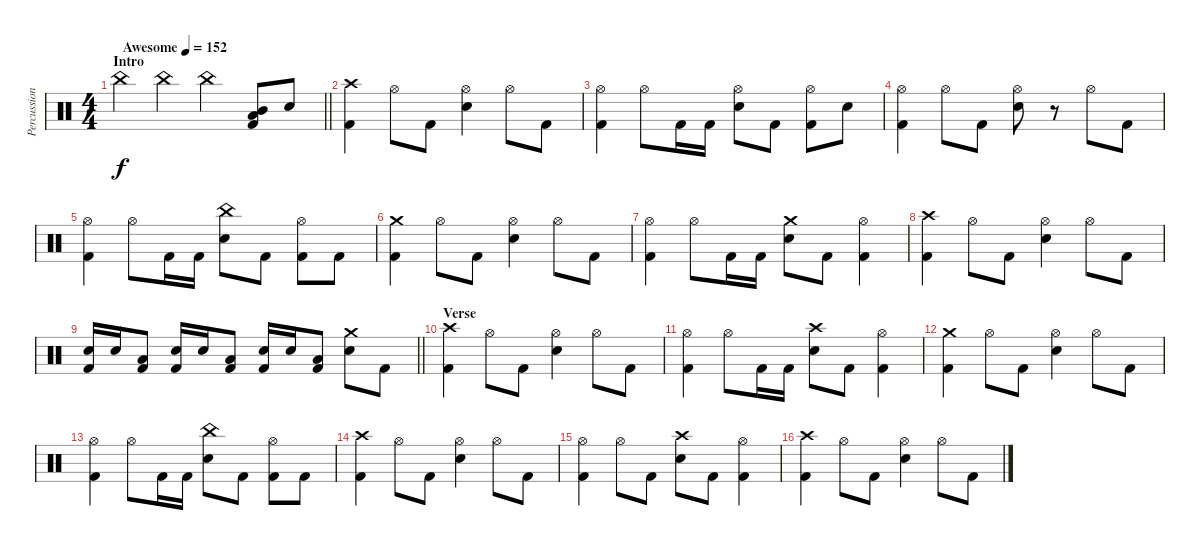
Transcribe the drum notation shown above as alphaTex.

\track ("Percussion" "Percussion") {instrument percussion}
\staff {score}
\articulation defaults
\ts (4 4)
\section ("" "Intro")
\tempo (152 "Awesome")
\clef neutral
\barLineRight lightlight
\ks c "China (hit)".4{dy f} "China (hit)".4 "China (hit)".4
("Mid Tom (hit)" "Low Tom (hit)" "Kick (hit) 2").8 "Electric Snare (hit)".8 |
("Crash high (hit)" "Kick (hit) 2").4 "Hi-Hat (open)".8 "Kick (hit) 2".8 ("Hi-Hat (open)" "Electric Snare (hit)").4 "Hi-Hat (open)".8 "Kick (hit) 2".8 |
("Hi-Hat (open)" "Kick (hit) 2").4 "Hi-Hat (open)".8 "Kick (hit) 2".16 "Kick (hit) 2".16 ("Hi-Hat (open)" "Electric Snare (hit)").8 "Kick (hit) 2".8 ("Hi-Hat (open)" "Kick (hit) 2").8 "Electric Snare (hit)".8 |
("Hi-Hat (open)" "Kick (hit) 2").4 "Hi-Hat (open)".8 "Kick (hit) 2".8 ("Hi-Hat (open)" "Electric Snare (hit)").8 r.8 "Hi-Hat (open)".8 "Kick (hit) 2".8 |
("Hi-Hat (open)" "Kick (hit) 2").4 "Hi-Hat (open)".8 "Kick (hit) 2".16 "Kick (hit) 2".16 ("China (hit)" "Electric Snare (hit)").8 "Kick (hit) 2".8 ("Hi-Hat (open)" "Kick (hit) 2").8 "Kick (hit) 2".8 |
("Crash medium (hit)" "Kick (hit) 2").4 "Hi-Hat (open)".8 "Kick (hit) 2".8 ("Hi-Hat (open)" "Electric Snare (hit)").4 "Hi-Hat (open)".8 "Kick (hit) 2".8 |
("Hi-Hat (open)" "Kick (hit) 2").4 "Hi-Hat (open)".8 "Kick (hit) 2".16 "Kick (hit) 2".16 ("Crash medium (hit)" "Electric Snare (hit)").8 "Kick (hit) 2".8 ("Hi-Hat (open)" "Kick (hit) 2").4 |
("Crash high (hit)" "Kick (hit) 2").4 "Hi-Hat (open)".8 "Kick (hit) 2".8 ("Hi-Hat (open)" "Electric Snare (hit)").4 "Hi-Hat (open)".8 "Kick (hit) 2".8 |
\barLineRight lightlight
("Electric Snare (hit)" "Kick (hit) 2").16 "Electric Snare (hit)".16 ("Low Tom (hit)" "Kick (hit) 2").8 ("Electric Snare (hit)" "Kick (hit) 2").16 "Electric Snare (hit)".16 ("Low Tom (hit)" "Kick (hit) 2").8 ("Electric Snare (hit)" "Kick (hit) 2").16 "Electric Snare (hit)".16 ("Low Tom (hit)" "Kick (hit) 2").8 ("Crash medium (hit)" "Electric Snare (hit)").8 "Kick (hit) 2".8 |
\section ("" "Verse")
("Crash high (hit)" "Kick (hit) 2").4 "Hi-Hat (open)".8 "Kick (hit) 2".8 ("Hi-Hat (open)" "Electric Snare (hit)").4 "Hi-Hat (open)".8 "Kick (hit) 2".8 |
("Hi-Hat (open)" "Kick (hit) 2").4 "Hi-Hat (open)".8 "Kick (hit) 2".16 "Kick (hit) 2".16 ("Crash high (hit)" "Electric Snare (hit)").8 "Kick (hit) 2".8 ("Hi-Hat (open)" "Kick (hit) 2").4 |
("Crash medium (hit)" "Kick (hit) 2").4 "Hi-Hat (open)".8 "Kick (hit) 2".8 ("Hi-Hat (open)" "Electric Snare (hit)").4 "Hi-Hat (open)".8 "Kick (hit) 2".8 |
("Hi-Hat (open)" "Kick (hit) 2").4 "Hi-Hat (open)".8 "Kick (hit) 2".16 "Kick (hit) 2".16 ("China (hit)" "Electric Snare (hit)").8 "Kick (hit) 2".8 ("Hi-Hat (open)" "Kick (hit) 2").8 "Kick (hit) 2".8 |
("Crash high (hit)" "Kick (hit) 2").4 "Hi-Hat (open)".8 "Kick (hit) 2".8 ("Hi-Hat (open)" "Electric Snare (hit)").4 "Hi-Hat (open)".8 "Kick (hit) 2".8 |
("Hi-Hat (open)" "Kick (hit) 2").4 "Hi-Hat (open)".8 "Kick (hit) 2".8 ("Crash high (hit)" "Electric Snare (hit)").8 "Kick (hit) 2".8 ("Hi-Hat (open)" "Kick (hit) 2").4 |
("Crash high (hit)" "Kick (hit) 2").4 "Hi-Hat (open)".8 "Kick (hit) 2".8 ("Hi-Hat (open)" "Electric Snare (hit)").4 "Hi-Hat (open)".8 "Kick (hit) 2".8
